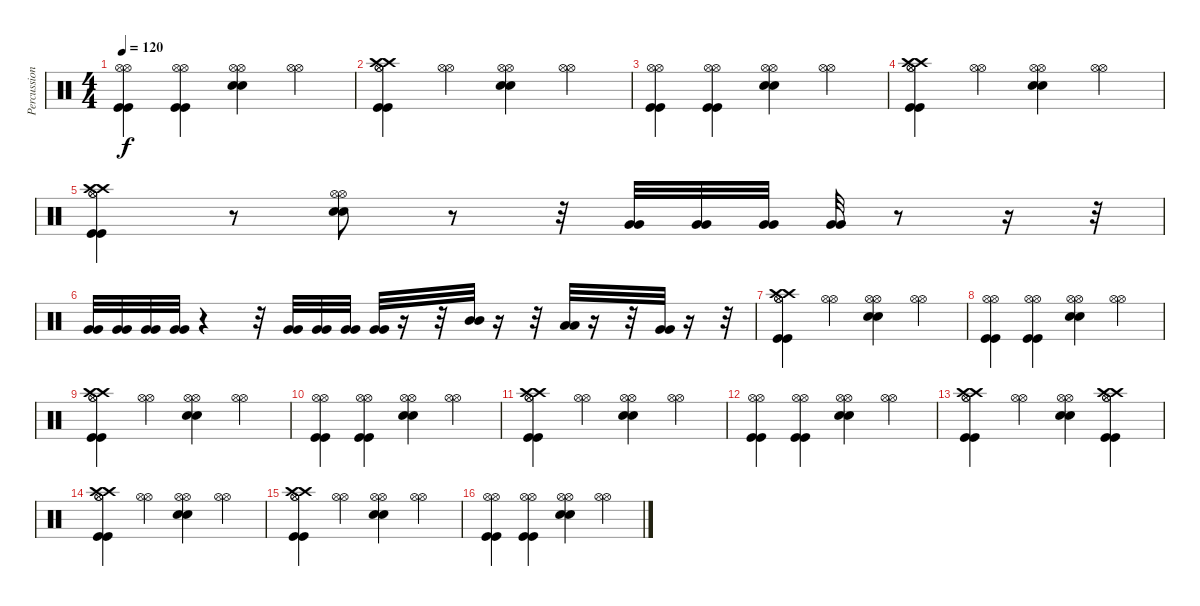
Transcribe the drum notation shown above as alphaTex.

\track ("Percussion" "Percussion") {instrument percussion}
\staff {score}
\articulation defaults
\ts (4 4)
\tempo 120
\clef neutral
\ks c
("Hi-Hat (open)" "Hi-Hat (open)" "Kick (hit)" "Kick (hit)").4{dy f} ("Hi-Hat (open)" "Hi-Hat (open)" "Kick (hit)" "Kick (hit)").4 ("Hi-Hat (open)" "Hi-Hat (open)" "Electric Snare (hit)" "Electric Snare (hit)").4 ("Hi-Hat (open)" "Hi-Hat (open)").4 |
("Hi-Hat (open)" "Hi-Hat (open)" "Kick (hit)" "Kick (hit)" "Crash high (hit)" "Crash high (hit)").4 ("Hi-Hat (open)" "Hi-Hat (open)").4 ("Hi-Hat (open)" "Hi-Hat (open)" "Electric Snare (hit)" "Electric Snare (hit)").4 ("Hi-Hat (open)" "Hi-Hat (open)").4 |
("Hi-Hat (open)" "Hi-Hat (open)" "Kick (hit)" "Kick (hit)").4 ("Hi-Hat (open)" "Hi-Hat (open)" "Kick (hit)" "Kick (hit)").4 ("Hi-Hat (open)" "Hi-Hat (open)" "Electric Snare (hit)" "Electric Snare (hit)").4 ("Hi-Hat (open)" "Hi-Hat (open)").4 |
("Hi-Hat (open)" "Hi-Hat (open)" "Kick (hit)" "Kick (hit)" "Crash high (hit)" "Crash high (hit)").4 ("Hi-Hat (open)" "Hi-Hat (open)").4 ("Hi-Hat (open)" "Hi-Hat (open)" "Electric Snare (hit)" "Electric Snare (hit)").4 ("Hi-Hat (open)" "Hi-Hat (open)").4 |
("Hi-Hat (open)" "Hi-Hat (open)" "Kick (hit)" "Kick (hit)" "Crash high (hit)" "Crash high (hit)").4 r.8 ("Hi-Hat (open)" "Hi-Hat (open)" "Electric Snare (hit)" "Electric Snare (hit)").8 r.8 r.32 ("Very Low Tom (hit)" "Very Low Tom (hit)").32 ("Very Low Tom (hit)" "Very Low Tom (hit)").32 ("Very Low Tom (hit)" "Very Low Tom (hit)").32 ("Very Low Tom (hit)" "Very Low Tom (hit)").32 r.8 r.16 r.32 |
("Very Low Tom (hit)" "Very Low Tom (hit)").32 ("Very Low Tom (hit)" "Very Low Tom (hit)").32 ("Very Low Tom (hit)" "Very Low Tom (hit)").32 ("Very Low Tom (hit)" "Very Low Tom (hit)").32 r.4 r.32 ("Very Low Tom (hit)" "Very Low Tom (hit)").32 ("Very Low Tom (hit)" "Very Low Tom (hit)").32 ("Very Low Tom (hit)" "Very Low Tom (hit)").32 ("Very Low Tom (hit)" "Very Low Tom (hit)").32 r.16 r.32 ("Mid Tom (hit)" "Mid Tom (hit)").32 r.16 r.32 ("Low Tom (hit)" "Low Tom (hit)").32 r.16 r.32 ("Very Low Tom (hit)" "Very Low Tom (hit)").32 r.16 r.32 |
("Hi-Hat (open)" "Hi-Hat (open)" "Kick (hit)" "Kick (hit)" "Crash high (hit)" "Crash high (hit)").4 ("Hi-Hat (open)" "Hi-Hat (open)").4 ("Hi-Hat (open)" "Hi-Hat (open)" "Electric Snare (hit)" "Electric Snare (hit)").4 ("Hi-Hat (open)" "Hi-Hat (open)").4 |
("Hi-Hat (open)" "Hi-Hat (open)" "Kick (hit)" "Kick (hit)").4 ("Hi-Hat (open)" "Hi-Hat (open)" "Kick (hit)" "Kick (hit)").4 ("Hi-Hat (open)" "Hi-Hat (open)" "Electric Snare (hit)" "Electric Snare (hit)").4 ("Hi-Hat (open)" "Hi-Hat (open)").4 |
("Hi-Hat (open)" "Hi-Hat (open)" "Kick (hit)" "Kick (hit)" "Crash high (hit)" "Crash high (hit)").4 ("Hi-Hat (open)" "Hi-Hat (open)").4 ("Hi-Hat (open)" "Hi-Hat (open)" "Electric Snare (hit)" "Electric Snare (hit)").4 ("Hi-Hat (open)" "Hi-Hat (open)").4 |
("Hi-Hat (open)" "Hi-Hat (open)" "Kick (hit)" "Kick (hit)").4 ("Hi-Hat (open)" "Hi-Hat (open)" "Kick (hit)" "Kick (hit)").4 ("Hi-Hat (open)" "Hi-Hat (open)" "Electric Snare (hit)" "Electric Snare (hit)").4 ("Hi-Hat (open)" "Hi-Hat (open)").4 |
("Hi-Hat (open)" "Hi-Hat (open)" "Kick (hit)" "Kick (hit)" "Crash high (hit)" "Crash high (hit)").4 ("Hi-Hat (open)" "Hi-Hat (open)").4 ("Hi-Hat (open)" "Hi-Hat (open)" "Electric Snare (hit)" "Electric Snare (hit)").4 ("Hi-Hat (open)" "Hi-Hat (open)").4 |
("Hi-Hat (open)" "Hi-Hat (open)" "Kick (hit)" "Kick (hit)").4 ("Hi-Hat (open)" "Hi-Hat (open)" "Kick (hit)" "Kick (hit)").4 ("Hi-Hat (open)" "Hi-Hat (open)" "Electric Snare (hit)" "Electric Snare (hit)").4 ("Hi-Hat (open)" "Hi-Hat (open)").4 |
("Hi-Hat (open)" "Hi-Hat (open)" "Kick (hit)" "Kick (hit)" "Crash high (hit)" "Crash high (hit)").4 ("Hi-Hat (open)" "Hi-Hat (open)").4 ("Hi-Hat (open)" "Hi-Hat (open)" "Electric Snare (hit)" "Electric Snare (hit)").4 ("Hi-Hat (open)" "Hi-Hat (open)" "Kick (hit)" "Kick (hit)" "Crash high (hit)" "Crash high (hit)").4 |
("Hi-Hat (open)" "Hi-Hat (open)" "Kick (hit)" "Kick (hit)" "Crash high (hit)" "Crash high (hit)").4 ("Hi-Hat (open)" "Hi-Hat (open)").4 ("Hi-Hat (open)" "Hi-Hat (open)" "Electric Snare (hit)" "Electric Snare (hit)").4 ("Hi-Hat (open)" "Hi-Hat (open)").4 |
("Hi-Hat (open)" "Hi-Hat (open)" "Kick (hit)" "Kick (hit)" "Crash high (hit)" "Crash high (hit)").4 ("Hi-Hat (open)" "Hi-Hat (open)").4 ("Hi-Hat (open)" "Hi-Hat (open)" "Electric Snare (hit)" "Electric Snare (hit)").4 ("Hi-Hat (open)" "Hi-Hat (open)").4 |
("Hi-Hat (open)" "Hi-Hat (open)" "Kick (hit)" "Kick (hit)").4 ("Hi-Hat (open)" "Hi-Hat (open)" "Kick (hit)" "Kick (hit)").4 ("Hi-Hat (open)" "Hi-Hat (open)" "Electric Snare (hit)" "Electric Snare (hit)").4 ("Hi-Hat (open)" "Hi-Hat (open)").4
